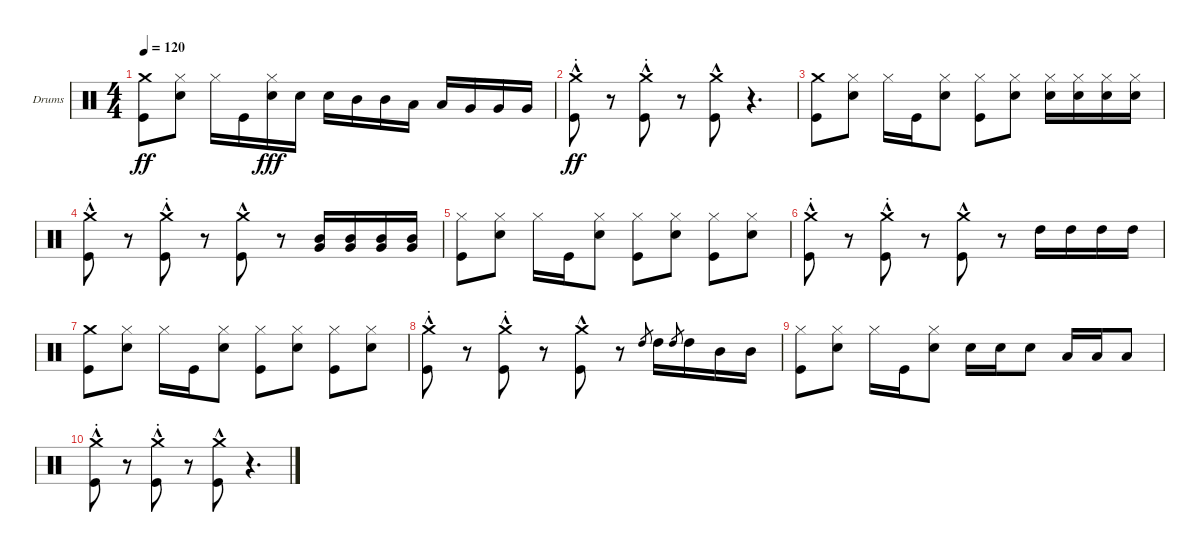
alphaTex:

\bracketExtendMode groupsimilarinstruments
\firstSystemTrackNameOrientation horizontal
\otherSystemsTrackNameOrientation horizontal
\track ("Drumkit" "Drums") {instrument percussion}
\staff {score}
\articulation defaults
\ts (4 4)
\tempo 120
\clef neutral
\ks c
("Kick (hit)" "Crash medium (hit)").8{dy ff} ("Snare (hit) 2" "Hi-Hat (closed)").8 "Hi-Hat (closed)".16 "Kick (hit)".16 ("Snare (hit) 2" "Hi-Hat (closed)").16{dy fff} "Snare (hit) 2".16 "Snare (hit) 2".16 "Mid Tom (hit)".16 "Mid Tom (hit)".16 "Low Tom (hit)".16 "Low Tom (hit)".16 "Very Low Tom (hit)".16 "Very Low Tom (hit)".16 "Very Low Tom (hit)".16 |
("Kick (hit)"{hac} "Crash medium (hit)"{st}).8{dy ff} r.8 ("Kick (hit)"{hac} "Crash medium (hit)"{st}).8 r.8 ("Kick (hit)"{hac} "Crash medium (hit)").8 r.4{d} |
("Kick (hit)" "Crash medium (hit)").8 ("Snare (hit) 2" "Hi-Hat (closed)").8 "Hi-Hat (closed)".16 "Kick (hit)".16 ("Snare (hit) 2" "Hi-Hat (closed)").8 ("Kick (hit)" "Hi-Hat (closed)").8 ("Snare (hit) 2" "Hi-Hat (closed)").8 ("Snare (hit) 2" "Hi-Hat (closed)").16 ("Snare (hit) 2" "Hi-Hat (closed)").16 ("Snare (hit) 2" "Hi-Hat (closed)").16 ("Snare (hit) 2" "Hi-Hat (closed)").16 |
("Kick (hit)"{hac} "Crash medium (hit)"{st}).8 r.8 ("Kick (hit)"{hac} "Crash medium (hit)"{st}).8 r.8 ("Kick (hit)"{hac} "Crash medium (hit)").8 r.8 ("Mid Tom (hit)" "Very Low Tom (hit)").16 ("Mid Tom (hit)" "Very Low Tom (hit)").16 ("Mid Tom (hit)" "Very Low Tom (hit)").16 ("Mid Tom (hit)" "Very Low Tom (hit)").16 |
("Kick (hit)" "Hi-Hat (closed)").8 ("Snare (hit) 2" "Hi-Hat (closed)").8 "Hi-Hat (closed)".16 "Kick (hit)".16 ("Snare (hit) 2" "Hi-Hat (closed)").8 ("Kick (hit)" "Hi-Hat (closed)").8 ("Snare (hit) 2" "Hi-Hat (closed)").8 ("Kick (hit)" "Hi-Hat (closed)").8 ("Snare (hit) 2" "Hi-Hat (closed)").8 |
("Kick (hit)"{hac} "Crash medium (hit)"{st}).8 r.8 ("Kick (hit)"{hac} "Crash medium (hit)"{st}).8 r.8 ("Kick (hit)"{hac} "Crash medium (hit)").8 r.8 "High Tom (hit)".16 "High Tom (hit)".16 "High Tom (hit)".16 "High Tom (hit)".16 |
("Kick (hit)" "Crash medium (hit)").8 ("Snare (hit) 2" "Hi-Hat (closed)").8 "Hi-Hat (closed)".16 "Kick (hit)".16 ("Snare (hit) 2" "Hi-Hat (closed)").8 ("Kick (hit)" "Hi-Hat (closed)").8 ("Snare (hit) 2" "Hi-Hat (closed)").8 ("Kick (hit)" "Hi-Hat (closed)").8 ("Snare (hit) 2" "Hi-Hat (closed)").8 |
("Kick (hit)"{hac} "Crash medium (hit)"{st}).8 r.8 ("Kick (hit)"{hac} "Crash medium (hit)"{st}).8 r.8 ("Kick (hit)"{hac} "Crash medium (hit)").8 r.8 "High Tom (hit)".8{gr} "High Tom (hit)".16 "High Tom (hit)".8{gr} "High Tom (hit)".16 "Mid Tom (hit)".16 "Mid Tom (hit)".16 |
("Kick (hit)" "Hi-Hat (closed)").8 ("Snare (hit) 2" "Hi-Hat (closed)").8 "Hi-Hat (closed)".16 "Kick (hit)".16 ("Snare (hit) 2" "Hi-Hat (closed)").8 "Snare (hit) 2".16 "Snare (hit) 2".16 "Snare (hit) 2".8 "Low Tom (hit)".16 "Low Tom (hit)".16 "Low Tom (hit)".8 |
("Kick (hit)"{hac} "Crash medium (hit)"{st}).8 r.8 ("Kick (hit)"{hac} "Crash medium (hit)"{st}).8 r.8 ("Kick (hit)"{hac} "Crash medium (hit)").8 r.4{d}
